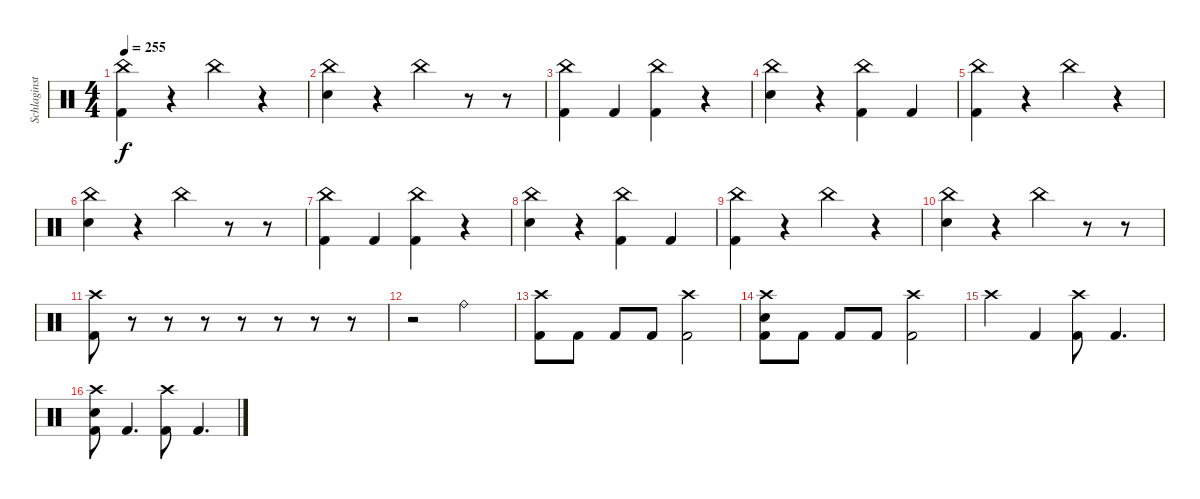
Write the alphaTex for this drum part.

\track ("Schlaginstrumente - Auswahl" "Schlaginst") {instrument percussion}
\staff {score}
\articulation defaults
\ts (4 4)
\tempo 255
\clef neutral
\ks c
("China (hit)" "Kick (hit) 2").4{dy f} r.4 "China (hit)".4 r.4 |
("China (hit)" "Electric Snare (hit)").4 r.4 "China (hit)".4 r.8 r.8 |
("China (hit)" "Kick (hit) 2").4 "Kick (hit) 2".4 ("China (hit)" "Kick (hit) 2").4 r.4 |
("China (hit)" "Electric Snare (hit)").4 r.4 ("China (hit)" "Kick (hit) 2").4 "Kick (hit) 2".4 |
("China (hit)" "Kick (hit) 2").4 r.4 "China (hit)".4 r.4 |
("China (hit)" "Electric Snare (hit)").4 r.4 "China (hit)".4 r.8 r.8 |
("China (hit)" "Kick (hit) 2").4 "Kick (hit) 2".4 ("China (hit)" "Kick (hit) 2").4 r.4 |
("China (hit)" "Electric Snare (hit)").4 r.4 ("China (hit)" "Kick (hit) 2").4 "Kick (hit) 2".4 |
("China (hit)" "Kick (hit) 2").4 r.4 "China (hit)".4 r.4 |
("China (hit)" "Electric Snare (hit)").4 r.4 "China (hit)".4 r.8 r.8 |
("Crash high (hit)" "Kick (hit) 2").8 r.8 r.8 r.8 r.8 r.8 r.8 r.8 |
r.2 "Ride (bell)".2 |
("Crash high (hit)" "Kick (hit) 2").8 "Kick (hit) 2".8 "Kick (hit) 2".8 "Kick (hit) 2".8 ("Crash high (hit)" "Kick (hit) 2").2 |
("Crash high (hit)" "Electric Snare (hit)" "Kick (hit) 2").8 "Kick (hit) 2".8 "Kick (hit) 2".8 "Kick (hit) 2".8 ("Crash high (hit)" "Kick (hit) 2").2 |
"Crash high (hit)".4 "Kick (hit) 2".4 ("Crash high (hit)" "Kick (hit) 2").8 "Kick (hit) 2".4{d} |
("Crash high (hit)" "Electric Snare (hit)" "Kick (hit) 2").8 "Kick (hit) 2".4{d} ("Crash high (hit)" "Kick (hit) 2").8 "Kick (hit) 2".4{d}
